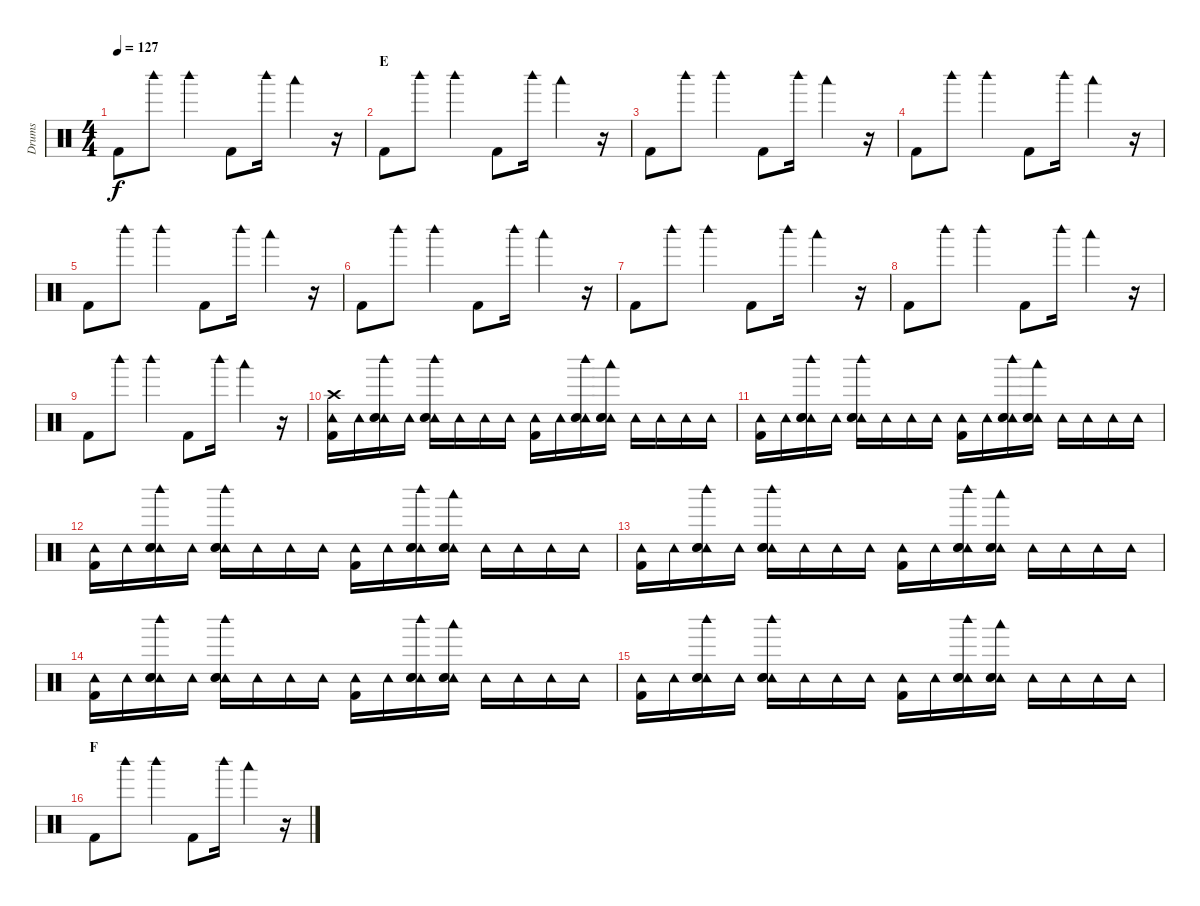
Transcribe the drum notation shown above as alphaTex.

\track ("Drums" "Drums") {instrument percussion}
\staff {score}
\articulation defaults
\ts (4 4)
\tempo 127
\clef neutral
\ks c "Kick (hit) 2".8{dy f} "Woodblock high (hit)".8 "Woodblock high (hit)".4 "Kick (hit) 2".8 "Woodblock high (hit)".16 "Woodblock low (hit)".4
r.16 |
\section ("" "E")
"Kick (hit) 2".8 "Woodblock high (hit)".8 "Woodblock high (hit)".4 "Kick (hit) 2".8 "Woodblock high (hit)".16 "Woodblock low (hit)".4 r.16 |
"Kick (hit) 2".8 "Woodblock high (hit)".8 "Woodblock high (hit)".4 "Kick (hit) 2".8 "Woodblock high (hit)".16 "Woodblock low (hit)".4 r.16 |
"Kick (hit) 2".8 "Woodblock high (hit)".8 "Woodblock high (hit)".4 "Kick (hit) 2".8 "Woodblock high (hit)".16 "Woodblock low (hit)".4 r.16 |
"Kick (hit) 2".8 "Woodblock high (hit)".8 "Woodblock high (hit)".4 "Kick (hit) 2".8 "Woodblock high (hit)".16 "Woodblock low (hit)".4 r.16 |
"Kick (hit) 2".8 "Woodblock high (hit)".8 "Woodblock high (hit)".4 "Kick (hit) 2".8 "Woodblock high (hit)".16 "Woodblock low (hit)".4 r.16 |
"Kick (hit) 2".8 "Woodblock high (hit)".8 "Woodblock high (hit)".4 "Kick (hit) 2".8 "Woodblock high (hit)".16 "Woodblock low (hit)".4 r.16 |
"Kick (hit) 2".8 "Woodblock high (hit)".8 "Woodblock high (hit)".4 "Kick (hit) 2".8 "Woodblock high (hit)".16 "Woodblock low (hit)".4 r.16 |
"Kick (hit) 2".8 "Woodblock high (hit)".8 "Woodblock high (hit)".4 "Kick (hit) 2".8 "Woodblock high (hit)".16 "Woodblock low (hit)".4 r.16 |
("Crash high (hit)" "Tambourine (hit)" "Kick (hit) 2").16{volume 13} "Tambourine (hit)".16 ("Tambourine (hit)" "Electric Snare (hit)" "Hand Clap (hit)" "Woodblock high (hit)").16 "Tambourine (hit)".16 ("Tambourine (hit)" "Electric Snare (hit)" "Hand Clap (hit)" "Woodblock high (hit)").16 "Tambourine (hit)".16 "Tambourine (hit)".16 "Tambourine (hit)".16 ("Tambourine (hit)" "Kick (hit) 2").16 "Tambourine (hit)".16 ("Tambourine (hit)" "Electric Snare (hit)" "Hand Clap (hit)" "Woodblock high (hit)").16 ("Tambourine (hit)" "Electric Snare (hit)" "Hand Clap (hit)" "Woodblock low (hit)").16 "Tambourine (hit)".16 "Tambourine (hit)".16 "Tambourine (hit)".16 "Tambourine (hit)".16 |
("Tambourine (hit)" "Kick (hit) 2").16 "Tambourine (hit)".16 ("Tambourine (hit)" "Electric Snare (hit)" "Hand Clap (hit)" "Woodblock high (hit)").16 "Tambourine (hit)".16 ("Tambourine (hit)" "Electric Snare (hit)" "Hand Clap (hit)" "Woodblock high (hit)").16 "Tambourine (hit)".16 "Tambourine (hit)".16 "Tambourine (hit)".16 ("Tambourine (hit)" "Kick (hit) 2").16 "Tambourine (hit)".16 ("Tambourine (hit)" "Electric Snare (hit)" "Hand Clap (hit)" "Woodblock high (hit)").16 ("Tambourine (hit)" "Electric Snare (hit)" "Hand Clap (hit)" "Woodblock low (hit)").16 "Tambourine (hit)".16 "Tambourine (hit)".16 "Tambourine (hit)".16 "Tambourine (hit)".16 |
("Tambourine (hit)" "Kick (hit) 2").16 "Tambourine (hit)".16 ("Tambourine (hit)" "Electric Snare (hit)" "Hand Clap (hit)" "Woodblock high (hit)").16 "Tambourine (hit)".16 ("Tambourine (hit)" "Electric Snare (hit)" "Hand Clap (hit)" "Woodblock high (hit)").16 "Tambourine (hit)".16 "Tambourine (hit)".16 "Tambourine (hit)".16 ("Tambourine (hit)" "Kick (hit) 2").16 "Tambourine (hit)".16 ("Tambourine (hit)" "Electric Snare (hit)" "Hand Clap (hit)" "Woodblock high (hit)").16 ("Tambourine (hit)" "Electric Snare (hit)" "Hand Clap (hit)" "Woodblock low (hit)").16 "Tambourine (hit)".16 "Tambourine (hit)".16 "Tambourine (hit)".16 "Tambourine (hit)".16 |
("Tambourine (hit)" "Kick (hit) 2").16 "Tambourine (hit)".16 ("Tambourine (hit)" "Electric Snare (hit)" "Hand Clap (hit)" "Woodblock high (hit)").16 "Tambourine (hit)".16 ("Tambourine (hit)" "Electric Snare (hit)" "Hand Clap (hit)" "Woodblock high (hit)").16 "Tambourine (hit)".16 "Tambourine (hit)".16 "Tambourine (hit)".16 ("Tambourine (hit)" "Kick (hit) 2").16 "Tambourine (hit)".16 ("Tambourine (hit)" "Electric Snare (hit)" "Hand Clap (hit)" "Woodblock high (hit)").16 ("Tambourine (hit)" "Electric Snare (hit)" "Hand Clap (hit)" "Woodblock low (hit)").16 "Tambourine (hit)".16 "Tambourine (hit)".16 "Tambourine (hit)".16 "Tambourine (hit)".16 |
("Tambourine (hit)" "Kick (hit) 2").16 "Tambourine (hit)".16 ("Tambourine (hit)" "Electric Snare (hit)" "Hand Clap (hit)" "Woodblock high (hit)").16 "Tambourine (hit)".16 ("Tambourine (hit)" "Electric Snare (hit)" "Hand Clap (hit)" "Woodblock high (hit)").16 "Tambourine (hit)".16 "Tambourine (hit)".16 "Tambourine (hit)".16 ("Tambourine (hit)" "Kick (hit) 2").16 "Tambourine (hit)".16 ("Tambourine (hit)" "Electric Snare (hit)" "Hand Clap (hit)" "Woodblock high (hit)").16 ("Tambourine (hit)" "Electric Snare (hit)" "Hand Clap (hit)" "Woodblock low (hit)").16 "Tambourine (hit)".16 "Tambourine (hit)".16 "Tambourine (hit)".16 "Tambourine (hit)".16 |
("Tambourine (hit)" "Kick (hit) 2").16 "Tambourine (hit)".16 ("Tambourine (hit)" "Electric Snare (hit)" "Hand Clap (hit)" "Woodblock high (hit)").16 "Tambourine (hit)".16 ("Tambourine (hit)" "Electric Snare (hit)" "Hand Clap (hit)" "Woodblock high (hit)").16 "Tambourine (hit)".16 "Tambourine (hit)".16 "Tambourine (hit)".16 ("Tambourine (hit)" "Kick (hit) 2").16 "Tambourine (hit)".16 ("Tambourine (hit)" "Electric Snare (hit)" "Hand Clap (hit)" "Woodblock high (hit)").16 ("Tambourine (hit)" "Electric Snare (hit)" "Hand Clap (hit)" "Woodblock low (hit)").16 "Tambourine (hit)".16 "Tambourine (hit)".16 "Tambourine (hit)".16 "Tambourine (hit)".16 |
\section ("" "F")
"Kick (hit) 2".8 "Woodblock high (hit)".8 "Woodblock high (hit)".4 "Kick (hit) 2".8 "Woodblock high (hit)".16 "Woodblock low (hit)".4 r.16
